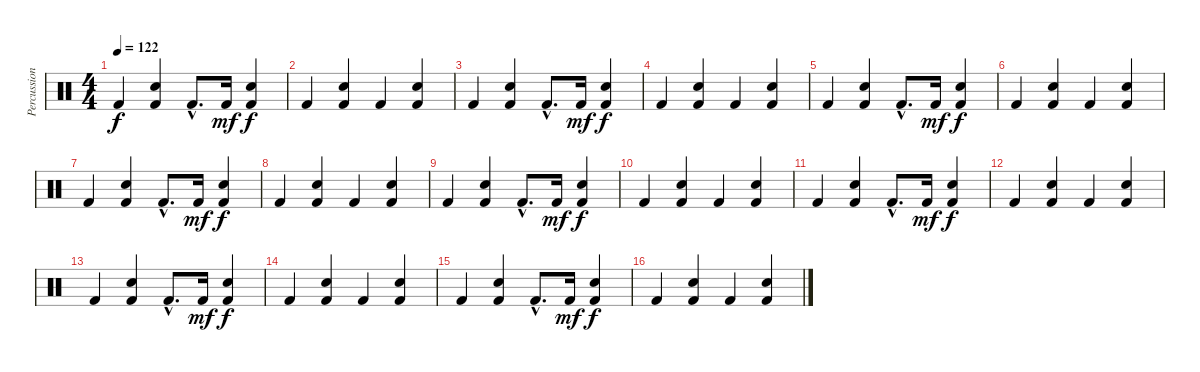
\track ("Percussion" "Percussion") {instrument percussion}
\staff {score}
\articulation defaults
\ts (4 4)
\tempo 122
\clef neutral
\ks c "Kick (hit) 2".4{dy f}
("Snare (hit) 2" "Kick (hit) 2").4 "Kick (hit) 2"{hac}.8{d} "Kick (hit) 2".16{dy mf} ("Snare (hit) 2" "Kick (hit) 2").4{dy f} |
"Kick (hit) 2".4 ("Snare (hit) 2" "Kick (hit) 2").4 "Kick (hit) 2".4 ("Snare (hit) 2" "Kick (hit) 2").4 |
"Kick (hit) 2".4 ("Snare (hit) 2" "Kick (hit) 2").4 "Kick (hit) 2"{hac}.8{d} "Kick (hit) 2".16{dy mf} ("Snare (hit) 2" "Kick (hit) 2").4{dy f} |
"Kick (hit) 2".4 ("Snare (hit) 2" "Kick (hit) 2").4 "Kick (hit) 2".4 ("Snare (hit) 2" "Kick (hit) 2").4 |
"Kick (hit) 2".4 ("Snare (hit) 2" "Kick (hit) 2").4 "Kick (hit) 2"{hac}.8{d} "Kick (hit) 2".16{dy mf} ("Snare (hit) 2" "Kick (hit) 2").4{dy f} |
"Kick (hit) 2".4 ("Snare (hit) 2" "Kick (hit) 2").4 "Kick (hit) 2".4 ("Snare (hit) 2" "Kick (hit) 2").4 |
"Kick (hit) 2".4 ("Snare (hit) 2" "Kick (hit) 2").4 "Kick (hit) 2"{hac}.8{d} "Kick (hit) 2".16{dy mf} ("Snare (hit) 2" "Kick (hit) 2").4{dy f} |
"Kick (hit) 2".4 ("Snare (hit) 2" "Kick (hit) 2").4 "Kick (hit) 2".4 ("Snare (hit) 2" "Kick (hit) 2").4 |
"Kick (hit) 2".4 ("Snare (hit) 2" "Kick (hit) 2").4 "Kick (hit) 2"{hac}.8{d} "Kick (hit) 2".16{dy mf} ("Snare (hit) 2" "Kick (hit) 2").4{dy f} |
"Kick (hit) 2".4 ("Snare (hit) 2" "Kick (hit) 2").4 "Kick (hit) 2".4 ("Snare (hit) 2" "Kick (hit) 2").4 |
"Kick (hit) 2".4 ("Snare (hit) 2" "Kick (hit) 2").4 "Kick (hit) 2"{hac}.8{d} "Kick (hit) 2".16{dy mf} ("Snare (hit) 2" "Kick (hit) 2").4{dy f} |
"Kick (hit) 2".4 ("Snare (hit) 2" "Kick (hit) 2").4 "Kick (hit) 2".4 ("Snare (hit) 2" "Kick (hit) 2").4 |
"Kick (hit) 2".4 ("Snare (hit) 2" "Kick (hit) 2").4 "Kick (hit) 2"{hac}.8{d} "Kick (hit) 2".16{dy mf} ("Snare (hit) 2" "Kick (hit) 2").4{dy f} |
"Kick (hit) 2".4 ("Snare (hit) 2" "Kick (hit) 2").4 "Kick (hit) 2".4 ("Snare (hit) 2" "Kick (hit) 2").4 |
"Kick (hit) 2".4 ("Snare (hit) 2" "Kick (hit) 2").4 "Kick (hit) 2"{hac}.8{d} "Kick (hit) 2".16{dy mf} ("Snare (hit) 2" "Kick (hit) 2").4{dy f} |
"Kick (hit) 2".4 ("Snare (hit) 2" "Kick (hit) 2").4 "Kick (hit) 2".4 ("Snare (hit) 2" "Kick (hit) 2").4
